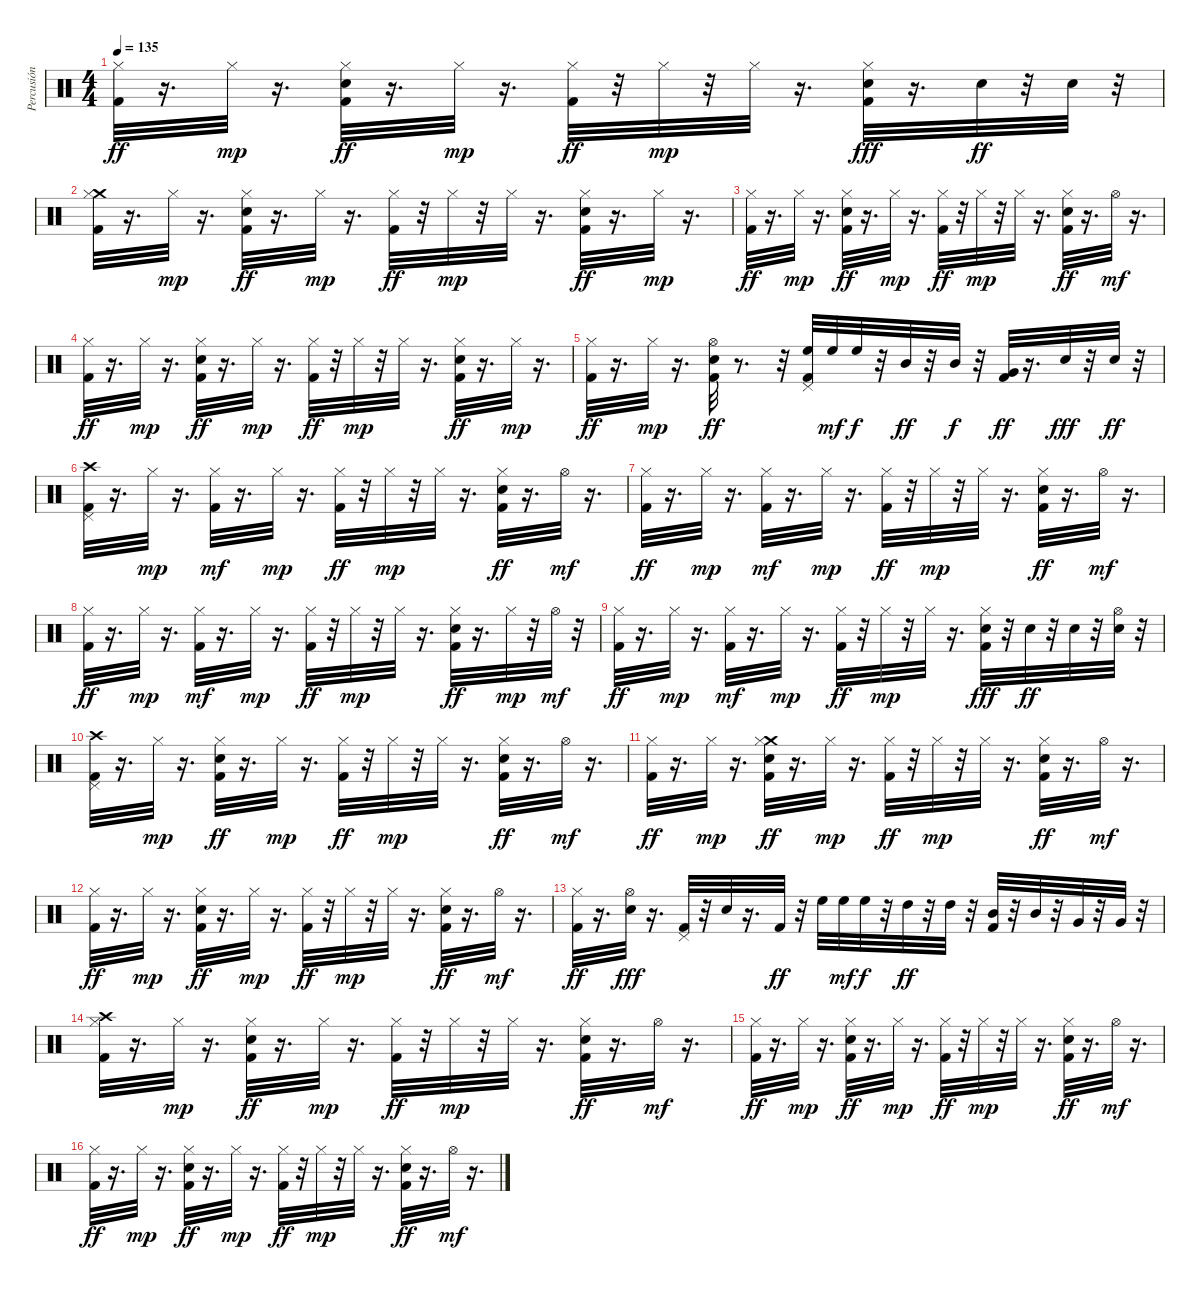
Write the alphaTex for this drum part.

\track ("Percusión" "Percusión") {instrument percussion}
\staff {score}
\articulation defaults
\ts (4 4)
\tempo 135
\clef neutral
\ks c
("Hi-Hat (closed)" "Kick (hit) 2").32{dy ff} r.16{d} "Hi-Hat (closed)".32{dy mp} r.16{d} ("Hi-Hat (closed)" "Electric Snare (hit)" "Kick (hit) 2").32{dy ff} r.16{d} "Hi-Hat (closed)".32{dy mp} r.16{d} ("Hi-Hat (closed)" "Kick (hit) 2").32{dy ff} r.32 "Hi-Hat (closed)".32{dy mp} r.32 "Hi-Hat (closed)".32 r.16{d} ("Hi-Hat (closed)" "Electric Snare (hit)" "Kick (hit) 2").32{dy fff} r.16{d} "Electric Snare (hit)".32{dy ff} r.32 "Electric Snare (hit)".32 r.32 |
("Crash medium (hit)" "Hi-Hat (closed)" "Kick (hit) 2").32 r.16{d} "Hi-Hat (closed)".32{dy mp} r.16{d} ("Hi-Hat (closed)" "Electric Snare (hit)" "Kick (hit) 2").32{dy ff} r.16{d} "Hi-Hat (closed)".32{dy mp} r.16{d} ("Hi-Hat (closed)" "Kick (hit) 2").32{dy ff} r.32 "Hi-Hat (closed)".32{dy mp} r.32 "Hi-Hat (closed)".32 r.16{d} ("Hi-Hat (closed)" "Electric Snare (hit)" "Kick (hit) 2").32{dy ff} r.16{d} "Hi-Hat (closed)".32{dy mp} r.16{d} |
("Hi-Hat (closed)" "Kick (hit) 2").32{dy ff} r.16{d} "Hi-Hat (closed)".32{dy mp} r.16{d} ("Hi-Hat (closed)" "Electric Snare (hit)" "Kick (hit) 2").32{dy ff} r.16{d} "Hi-Hat (closed)".32{dy mp} r.16{d} ("Hi-Hat (closed)" "Kick (hit) 2").32{dy ff} r.32 "Hi-Hat (closed)".32{dy mp} r.32 "Hi-Hat (closed)".32 r.16{d} ("Hi-Hat (closed)" "Electric Snare (hit)" "Kick (hit) 2").32{dy ff} r.16{d} "Hi-Hat (open)".32{dy mf} r.16{d} |
("Hi-Hat (closed)" "Kick (hit) 2").32{dy ff} r.16{d} "Hi-Hat (closed)".32{dy mp} r.16{d} ("Hi-Hat (closed)" "Electric Snare (hit)" "Kick (hit) 2").32{dy ff} r.16{d} "Hi-Hat (closed)".32{dy mp} r.16{d} ("Hi-Hat (closed)" "Kick (hit) 2").32{dy ff} r.32 "Hi-Hat (closed)".32{dy mp} r.32 "Hi-Hat (closed)".32 r.16{d} ("Hi-Hat (closed)" "Electric Snare (hit)" "Kick (hit) 2").32{dy ff} r.16{d} "Hi-Hat (closed)".32{dy mp} r.16{d} |
("Hi-Hat (closed)" "Kick (hit) 2").32{dy ff} r.16{d} "Hi-Hat (closed)".32{dy mp} r.16{d} ("Hi-Hat (open)" "Electric Snare (hit)" "Kick (hit) 2").32{dy ff} r.8{d} r.32 ("High Floor Tom (hit)" "Pedal Hi-Hat (hit)" "Kick (hit) 2").32 "High Floor Tom (hit)".32{dy mf} "High Floor Tom (hit)".32{dy f} r.32 "Mid Tom (hit)".32{dy ff} r.32 "Mid Tom (hit)".32{dy f} r.32 ("Very Low Tom (hit)" "Kick (hit) 2").32{dy ff} r.16{d} "Electric Snare (hit)".32{dy fff} r.32 "Electric Snare (hit)".32{dy ff} r.32 |
("Crash high (hit)" "Pedal Hi-Hat (hit)" "Kick (hit) 2").32 r.16{d} "Hi-Hat (closed)".32{dy mp} r.16{d} ("Hi-Hat (closed)" "Kick (hit) 2").32{dy mf} r.16{d} "Hi-Hat (closed)".32{dy mp} r.16{d} ("Hi-Hat (closed)" "Kick (hit) 2").32{dy ff} r.32 "Hi-Hat (closed)".32{dy mp} r.32 "Hi-Hat (closed)".32 r.16{d} ("Hi-Hat (closed)" "Electric Snare (hit)" "Kick (hit) 2").32{dy ff} r.16{d} "Hi-Hat (open)".32{dy mf} r.16{d} |
("Hi-Hat (closed)" "Kick (hit) 2").32{dy ff} r.16{d} "Hi-Hat (closed)".32{dy mp} r.16{d} ("Hi-Hat (closed)" "Kick (hit) 2").32{dy mf} r.16{d} "Hi-Hat (closed)".32{dy mp} r.16{d} ("Hi-Hat (closed)" "Kick (hit) 2").32{dy ff} r.32 "Hi-Hat (closed)".32{dy mp} r.32 "Hi-Hat (closed)".32 r.16{d} ("Hi-Hat (closed)" "Electric Snare (hit)" "Kick (hit) 2").32{dy ff} r.16{d} "Hi-Hat (open)".32{dy mf} r.16{d} |
("Hi-Hat (closed)" "Kick (hit) 2").32{dy ff} r.16{d} "Hi-Hat (closed)".32{dy mp} r.16{d} ("Hi-Hat (closed)" "Kick (hit) 2").32{dy mf} r.16{d} "Hi-Hat (closed)".32{dy mp} r.16{d} ("Hi-Hat (closed)" "Kick (hit) 2").32{dy ff} r.32 "Hi-Hat (closed)".32{dy mp} r.32 "Hi-Hat (closed)".32 r.16{d} ("Hi-Hat (closed)" "Electric Snare (hit)" "Kick (hit) 2").32{dy ff} r.16{d} "Hi-Hat (closed)".32{dy mp} r.32 "Hi-Hat (open)".32{dy mf} r.32 |
("Hi-Hat (closed)" "Kick (hit) 2").32{dy ff} r.16{d} "Hi-Hat (closed)".32{dy mp} r.16{d} ("Hi-Hat (closed)" "Kick (hit) 2").32{dy mf} r.16{d} "Hi-Hat (closed)".32{dy mp} r.16{d} ("Hi-Hat (closed)" "Kick (hit) 2").32{dy ff} r.32 "Hi-Hat (closed)".32{dy mp} r.32 "Hi-Hat (closed)".32 r.16{d} ("Hi-Hat (closed)" "Electric Snare (hit)" "Kick (hit) 2").32{dy fff} r.32 "Electric Snare (hit)".32{dy ff} r.32 "Electric Snare (hit)".32 r.32 ("Hi-Hat (open)" "Electric Snare (hit)").32 r.32 |
("Crash high (hit)" "Pedal Hi-Hat (hit)" "Kick (hit) 2").32 r.16{d} "Hi-Hat (closed)".32{dy mp} r.16{d} ("Hi-Hat (closed)" "Electric Snare (hit)" "Kick (hit) 2").32{dy ff} r.16{d} "Hi-Hat (closed)".32{dy mp} r.16{d} ("Hi-Hat (closed)" "Kick (hit) 2").32{dy ff} r.32 "Hi-Hat (closed)".32{dy mp} r.32 "Hi-Hat (closed)".32 r.16{d} ("Hi-Hat (closed)" "Electric Snare (hit)" "Kick (hit) 2").32{dy ff} r.16{d} "Hi-Hat (open)".32{dy mf} r.16{d} |
("Hi-Hat (closed)" "Kick (hit) 2").32{dy ff} r.16{d} "Hi-Hat (closed)".32{dy mp} r.16{d} ("Crash medium (hit)" "Hi-Hat (closed)" "Electric Snare (hit)" "Kick (hit) 2").32{dy ff} r.16{d} "Hi-Hat (closed)".32{dy mp} r.16{d} ("Hi-Hat (closed)" "Kick (hit) 2").32{dy ff} r.32 "Hi-Hat (closed)".32{dy mp} r.32 "Hi-Hat (closed)".32 r.16{d} ("Hi-Hat (closed)" "Electric Snare (hit)" "Kick (hit) 2").32{dy ff} r.16{d} "Hi-Hat (open)".32{dy mf} r.16{d} |
("Hi-Hat (closed)" "Kick (hit) 2").32{dy ff} r.16{d} "Hi-Hat (closed)".32{dy mp} r.16{d} ("Hi-Hat (closed)" "Electric Snare (hit)" "Kick (hit) 2").32{dy ff} r.16{d} "Hi-Hat (closed)".32{dy mp} r.16{d} ("Hi-Hat (closed)" "Kick (hit) 2").32{dy ff} r.32 "Hi-Hat (closed)".32{dy mp} r.32 "Hi-Hat (closed)".32 r.16{d} ("Hi-Hat (closed)" "Electric Snare (hit)" "Kick (hit) 2").32{dy ff} r.16{d} "Hi-Hat (open)".32{dy mf} r.16{d} |
("Hi-Hat (closed)" "Kick (hit) 2").32{dy ff} r.16{d} ("Hi-Hat (open)" "Electric Snare (hit)").32{dy fff} r.16{d} ("Pedal Hi-Hat (hit)" "Kick (hit) 2").32 r.32 "Electric Snare (hit)".32 r.16{d} "Kick (hit) 2".32{dy ff} r.32 "High Floor Tom (hit)".32 "High Floor Tom (hit)".32{dy mf} "High Floor Tom (hit)".32{dy f} r.32 "High Tom (hit)".32{dy ff} r.32 "High Tom (hit)".32 r.32 ("Mid Tom (hit)" "Kick (hit) 2").32 r.32 "Mid Tom (hit)".32 r.32 "Very Low Tom (hit)".32 r.32 "Very Low Tom (hit)".32 r.32 |
("Crash high (hit)" "Hi-Hat (closed)" "Kick (hit) 2").32 r.16{d} "Hi-Hat (closed)".32{dy mp} r.16{d} ("Hi-Hat (closed)" "Electric Snare (hit)" "Kick (hit) 2").32{dy ff} r.16{d} "Hi-Hat (closed)".32{dy mp} r.16{d} ("Hi-Hat (closed)" "Kick (hit) 2").32{dy ff} r.32 "Hi-Hat (closed)".32{dy mp} r.32 "Hi-Hat (closed)".32 r.16{d} ("Hi-Hat (closed)" "Electric Snare (hit)" "Kick (hit) 2").32{dy ff} r.16{d} "Hi-Hat (open)".32{dy mf} r.16{d} |
("Hi-Hat (closed)" "Kick (hit) 2").32{dy ff} r.16{d} "Hi-Hat (closed)".32{dy mp} r.16{d} ("Hi-Hat (closed)" "Electric Snare (hit)" "Kick (hit) 2").32{dy ff} r.16{d} "Hi-Hat (closed)".32{dy mp} r.16{d} ("Hi-Hat (closed)" "Kick (hit) 2").32{dy ff} r.32 "Hi-Hat (closed)".32{dy mp} r.32 "Hi-Hat (closed)".32 r.16{d} ("Hi-Hat (closed)" "Electric Snare (hit)" "Kick (hit) 2").32{dy ff} r.16{d} "Hi-Hat (open)".32{dy mf} r.16{d} |
("Hi-Hat (closed)" "Kick (hit) 2").32{dy ff} r.16{d} "Hi-Hat (closed)".32{dy mp} r.16{d} ("Hi-Hat (closed)" "Electric Snare (hit)" "Kick (hit) 2").32{dy ff} r.16{d} "Hi-Hat (closed)".32{dy mp} r.16{d} ("Hi-Hat (closed)" "Kick (hit) 2").32{dy ff} r.32 "Hi-Hat (closed)".32{dy mp} r.32 "Hi-Hat (closed)".32 r.16{d} ("Hi-Hat (closed)" "Electric Snare (hit)" "Kick (hit) 2").32{dy ff} r.16{d} "Hi-Hat (open)".32{dy mf} r.16{d}
